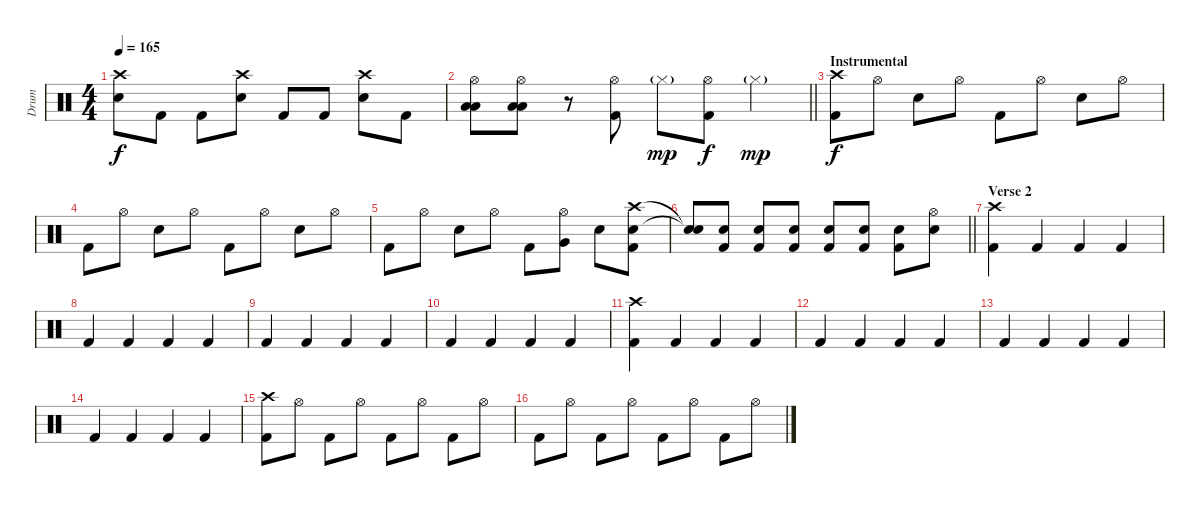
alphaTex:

\track ("Drum" "Drum") {instrument percussion}
\staff {score}
\articulation defaults
\ts (4 4)
\tempo 165
\clef neutral
\ks c
("Crash high (hit)" "Electric Snare (hit)").8{dy f} "Kick (hit) 2".8 "Kick (hit) 2".8 ("Crash high (hit)" "Electric Snare (hit)").8 "Kick (hit) 2".8 "Kick (hit) 2".8 ("Crash high (hit)" "Electric Snare (hit)").8 "Kick (hit) 2".8 |
\barLineRight lightlight
("Hi-Hat (open)" "Low Tom (hit)" "Low Tom (hit)").8 ("Hi-Hat (open)" "Low Tom (hit)" "Low Tom (hit)").8 r.8 ("Hi-Hat (open)" "Kick (hit) 2").8 "Hi-Hat (closed)"{g}.8{dy mp} ("Hi-Hat (open)" "Kick (hit) 2").8{dy f} "Hi-Hat (closed)"{g}.4{dy mp} |
\section ("" "Instrumental")
("Crash high (hit)" "Kick (hit) 2").8{dy f} "Hi-Hat (open)".8 "Electric Snare (hit)".8 "Hi-Hat (open)".8 "Kick (hit) 2".8 "Hi-Hat (open)".8 "Electric Snare (hit)".8 "Hi-Hat (open)".8 |
"Kick (hit) 2".8 "Hi-Hat (open)".8 "Electric Snare (hit)".8 "Hi-Hat (open)".8 "Kick (hit) 2".8 "Hi-Hat (open)".8 "Electric Snare (hit)".8 "Hi-Hat (open)".8 |
"Kick (hit) 2".8 "Hi-Hat (open)".8 "Electric Snare (hit)".8 "Hi-Hat (open)".8 "Kick (hit) 2".8 ("Hi-Hat (open)" "Very Low Tom (hit)").8 "Electric Snare (hit)".8 ("Crash high (hit)" "Electric Snare (hit)" "Kick (hit) 2").8 |
\barLineRight lightlight
("Snare (hit)"{t} "Snare (hit)"{t}).8 ("Electric Snare (hit)" "Kick (hit) 2").8 ("Electric Snare (hit)" "Kick (hit) 2").8 ("Electric Snare (hit)" "Kick (hit) 2").8 ("Electric Snare (hit)" "Kick (hit) 2").8 ("Electric Snare (hit)" "Kick (hit) 2").8 ("Electric Snare (hit)" "Kick (hit) 2").8 ("Hi-Hat (open)" "Electric Snare (hit)").8 |
\section ("" "Verse 2")
("Crash high (hit)" "Kick (hit) 2").4 "Kick (hit) 2".4 "Kick (hit) 2".4 "Kick (hit) 2".4 |
"Kick (hit) 2".4 "Kick (hit) 2".4 "Kick (hit) 2".4 "Kick (hit) 2".4 |
"Kick (hit) 2".4 "Kick (hit) 2".4 "Kick (hit) 2".4 "Kick (hit) 2".4 |
"Kick (hit) 2".4 "Kick (hit) 2".4 "Kick (hit) 2".4 "Kick (hit) 2".4 |
("Crash high (hit)" "Kick (hit) 2").4 "Kick (hit) 2".4 "Kick (hit) 2".4 "Kick (hit) 2".4 |
"Kick (hit) 2".4 "Kick (hit) 2".4 "Kick (hit) 2".4 "Kick (hit) 2".4 |
"Kick (hit) 2".4 "Kick (hit) 2".4 "Kick (hit) 2".4 "Kick (hit) 2".4 |
"Kick (hit) 2".4 "Kick (hit) 2".4 "Kick (hit) 2".4 "Kick (hit) 2".4 |
("Crash high (hit)" "Kick (hit) 2").8 "Hi-Hat (open)".8 "Kick (hit) 2".8 "Hi-Hat (open)".8 "Kick (hit) 2".8 "Hi-Hat (open)".8 "Kick (hit) 2".8 "Hi-Hat (open)".8 |
"Kick (hit) 2".8 "Hi-Hat (open)".8 "Kick (hit) 2".8 "Hi-Hat (open)".8 "Kick (hit) 2".8 "Hi-Hat (open)".8 "Kick (hit) 2".8 "Hi-Hat (open)".8
